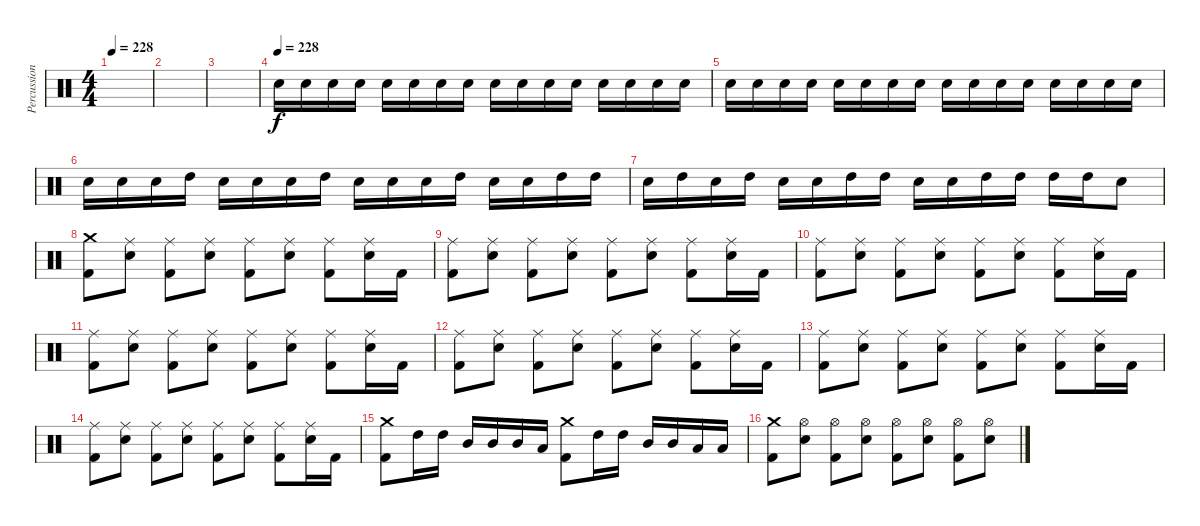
\track ("Percussion" "Percussion") {instrument percussion}
\staff {score}
\articulation defaults
\ts (4 4)
\tempo 228
\clef neutral
\ks c
|
|
|
\tempo (228)
"Electric Snare (hit)".16 "Electric Snare (hit)".16 "Electric Snare (hit)".16 "Electric Snare (hit)".16 "Electric Snare (hit)".16 "Electric Snare (hit)".16 "Electric Snare (hit)".16 "Electric Snare (hit)".16 "Electric Snare (hit)".16 "Electric Snare (hit)".16 "Electric Snare (hit)".16 "Electric Snare (hit)".16 "Electric Snare (hit)".16 "Electric Snare (hit)".16 "Electric Snare (hit)".16 "Electric Snare (hit)".16 |
"Electric Snare (hit)".16 "Electric Snare (hit)".16 "Electric Snare (hit)".16 "Electric Snare (hit)".16 "Electric Snare (hit)".16 "Electric Snare (hit)".16 "Electric Snare (hit)".16 "Electric Snare (hit)".16 "Electric Snare (hit)".16 "Electric Snare (hit)".16 "Electric Snare (hit)".16 "Electric Snare (hit)".16 "Electric Snare (hit)".16 "Electric Snare (hit)".16 "Electric Snare (hit)".16 "Electric Snare (hit)".16 |
"Electric Snare (hit)".16 "Electric Snare (hit)".16 "Electric Snare (hit)".16 "High Tom (hit)".16 "Electric Snare (hit)".16 "Electric Snare (hit)".16 "Electric Snare (hit)".16 "High Tom (hit)".16 "Electric Snare (hit)".16 "Electric Snare (hit)".16 "Electric Snare (hit)".16 "High Tom (hit)".16 "Electric Snare (hit)".16 "Electric Snare (hit)".16 "High Tom (hit)".16 "High Tom (hit)".16 |
"Electric Snare (hit)".16 "High Tom (hit)".16 "Electric Snare (hit)".16 "High Tom (hit)".16 "Electric Snare (hit)".16 "Electric Snare (hit)".16 "High Tom (hit)".16 "High Tom (hit)".16 "Electric Snare (hit)".16 "Electric Snare (hit)".16 "High Tom (hit)".16 "High Tom (hit)".16 "High Tom (hit)".16 "High Tom (hit)".16 "Electric Snare (hit)".8 |
("Kick (hit) 2" "Crash medium (hit)").8 ("Ride (middle)" "Electric Snare (hit)").8 ("Ride (middle)" "Kick (hit) 2").8 ("Ride (middle)" "Electric Snare (hit)").8 ("Ride (middle)" "Kick (hit) 2").8 ("Ride (middle)" "Electric Snare (hit)").8 ("Ride (middle)" "Kick (hit) 2").8 ("Ride (middle)" "Electric Snare (hit)").16 "Kick (hit) 2".16 |
("Ride (middle)" "Kick (hit) 2").8 ("Ride (middle)" "Electric Snare (hit)").8 ("Ride (middle)" "Kick (hit) 2").8 ("Ride (middle)" "Electric Snare (hit)").8 ("Ride (middle)" "Kick (hit) 2").8 ("Ride (middle)" "Electric Snare (hit)").8 ("Ride (middle)" "Kick (hit) 2").8 ("Ride (middle)" "Electric Snare (hit)").16 "Kick (hit) 2".16 |
("Ride (middle)" "Kick (hit) 2").8 ("Ride (middle)" "Electric Snare (hit)").8 ("Ride (middle)" "Kick (hit) 2").8 ("Ride (middle)" "Electric Snare (hit)").8 ("Ride (middle)" "Kick (hit) 2").8 ("Ride (middle)" "Electric Snare (hit)").8 ("Ride (middle)" "Kick (hit) 2").8 ("Ride (middle)" "Electric Snare (hit)").16 "Kick (hit) 2".16 |
("Ride (middle)" "Kick (hit) 2").8 ("Ride (middle)" "Electric Snare (hit)").8 ("Ride (middle)" "Kick (hit) 2").8 ("Ride (middle)" "Electric Snare (hit)").8 ("Ride (middle)" "Kick (hit) 2").8 ("Ride (middle)" "Electric Snare (hit)").8 ("Ride (middle)" "Kick (hit) 2").8 ("Ride (middle)" "Electric Snare (hit)").16 "Kick (hit) 2".16 |
("Ride (middle)" "Kick (hit) 2").8 ("Ride (middle)" "Electric Snare (hit)").8 ("Ride (middle)" "Kick (hit) 2").8 ("Ride (middle)" "Electric Snare (hit)").8 ("Ride (middle)" "Kick (hit) 2").8 ("Ride (middle)" "Electric Snare (hit)").8 ("Ride (middle)" "Kick (hit) 2").8 ("Ride (middle)" "Electric Snare (hit)").16 "Kick (hit) 2".16 |
("Ride (middle)" "Kick (hit) 2").8 ("Ride (middle)" "Electric Snare (hit)").8 ("Ride (middle)" "Kick (hit) 2").8 ("Ride (middle)" "Electric Snare (hit)").8 ("Ride (middle)" "Kick (hit) 2").8 ("Ride (middle)" "Electric Snare (hit)").8 ("Ride (middle)" "Kick (hit) 2").8 ("Ride (middle)" "Electric Snare (hit)").16 "Kick (hit) 2".16 |
("Ride (middle)" "Kick (hit) 2").8 ("Ride (middle)" "Electric Snare (hit)").8 ("Ride (middle)" "Kick (hit) 2").8 ("Ride (middle)" "Electric Snare (hit)").8 ("Ride (middle)" "Kick (hit) 2").8 ("Ride (middle)" "Electric Snare (hit)").8 ("Ride (middle)" "Kick (hit) 2").8 ("Ride (middle)" "Electric Snare (hit)").16 "Kick (hit) 2".16 |
("Crash medium (hit)" "Kick (hit) 2").8 "High Tom (hit)".16 "High Tom (hit)".16 "Mid Tom (hit)".16 "Mid Tom (hit)".16 "Mid Tom (hit)".16 "Low Tom (hit)".16 ("Crash medium (hit)" "Kick (hit) 2").8 "High Tom (hit)".16 "High Tom (hit)".16 "Mid Tom (hit)".16 "Mid Tom (hit)".16 "Low Tom (hit)".16 "Low Tom (hit)".16 |
("Kick (hit) 2" "Crash medium (hit)").8 ("Hi-Hat (open)" "Electric Snare (hit)").8 ("Hi-Hat (open)" "Kick (hit) 2").8 ("Hi-Hat (open)" "Electric Snare (hit)").8 ("Hi-Hat (open)" "Kick (hit) 2").8 ("Hi-Hat (open)" "Electric Snare (hit)").8 ("Hi-Hat (open)" "Kick (hit) 2").8 ("Hi-Hat (open)" "Electric Snare (hit)").8
